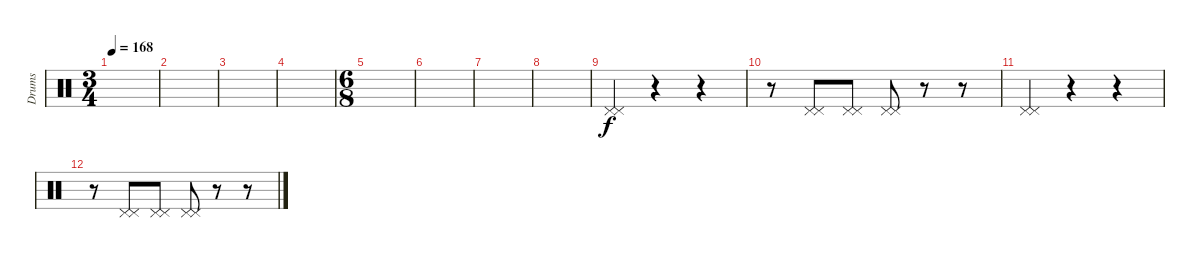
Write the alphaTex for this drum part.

\track ("Drums" "Drums") {instrument percussion}
\staff {score}
\articulation defaults
\ts (3 4)
\tempo 168
\clef neutral
\ks c
|
|
|
|
\ts (6 8)
|
|
|
|
("Pedal Hi-Hat (hit)" "Pedal Hi-Hat (hit)").4 r.4 r.4 |
r.8 ("Pedal Hi-Hat (hit)" "Pedal Hi-Hat (hit)").8 ("Pedal Hi-Hat (hit)" "Pedal Hi-Hat (hit)").8 ("Pedal Hi-Hat (hit)" "Pedal Hi-Hat (hit)").8 r.8 r.8 |
("Pedal Hi-Hat (hit)" "Pedal Hi-Hat (hit)").4 r.4 r.4 |
r.8 ("Pedal Hi-Hat (hit)" "Pedal Hi-Hat (hit)").8 ("Pedal Hi-Hat (hit)" "Pedal Hi-Hat (hit)").8 ("Pedal Hi-Hat (hit)" "Pedal Hi-Hat (hit)").8 r.8 r.8
